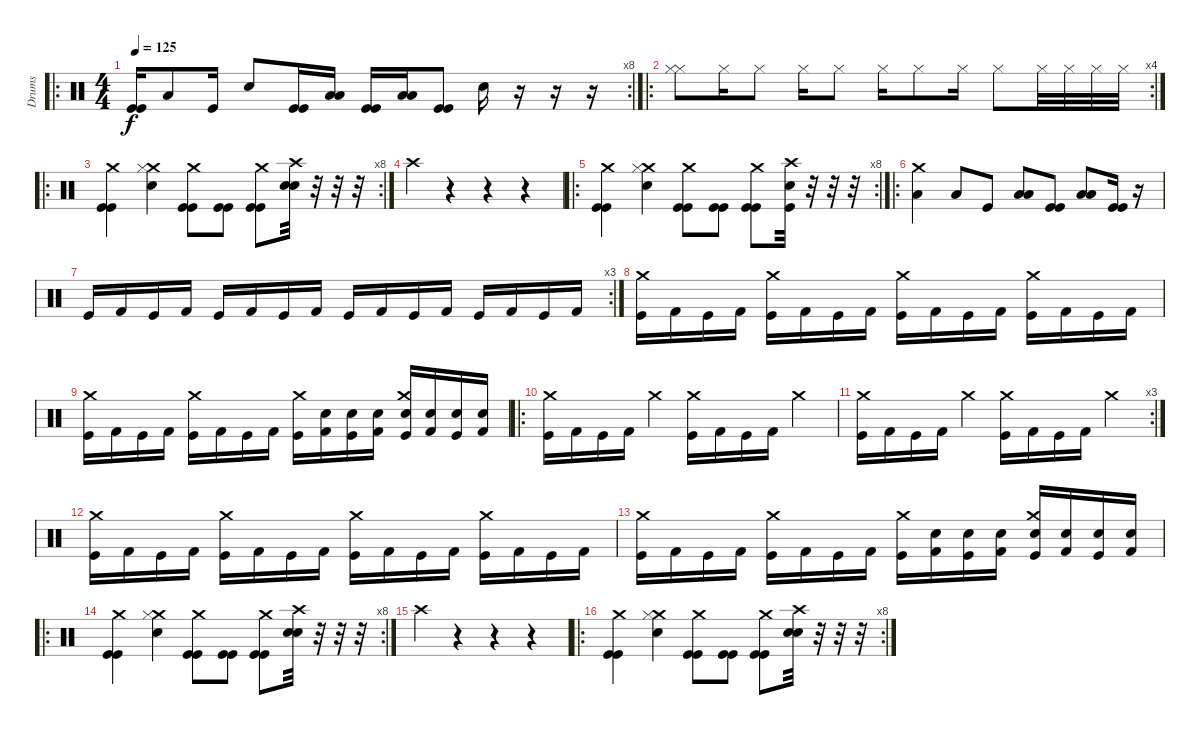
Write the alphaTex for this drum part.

\track ("Drums" "Drums") {instrument percussion}
\staff {score}
\articulation defaults
\ro
\rc 8
\ts (4 4)
\tempo 125
\clef neutral
\ks c
("Kick (hit)" "Kick (hit)").16{dy f} "Low Tom (hit)".8 "Kick (hit)".16 "Snare (hit) 2".8 ("Kick (hit)" "Kick (hit)").16 ("Low Tom (hit)" "Low Tom (hit)").16 ("Kick (hit)" "Kick (hit)").16 ("Low Tom (hit)" "Low Tom (hit)").16 ("Kick (hit)" "Kick (hit)").8 "Snare (hit) 2".16 r.16 r.16 r.16 |
\ro
\rc 4
("Hi-Hat (closed)" "Hi-Hat (closed)").8 "Hi-Hat (closed)".16 "Hi-Hat (closed)".8 "Hi-Hat (closed)".16 "Hi-Hat (closed)".8 "Hi-Hat (closed)".16 "Hi-Hat (closed)".8 "Hi-Hat (closed)".16 "Hi-Hat (closed)".8 "Hi-Hat (closed)".32 "Hi-Hat (closed)".32 "Hi-Hat (closed)".32 "Hi-Hat (closed)".32 |
\ro
\rc 8
("Crash medium (hit)" "Kick (hit)" "Kick (hit)").4 ("Crash medium (hit)" "Hi-Hat (closed)" "Snare (hit) 2").4 ("Crash medium (hit)" "Kick (hit)" "Kick (hit)").8 ("Kick (hit)" "Kick (hit)").8 ("Crash medium (hit)" "Kick (hit)" "Kick (hit)").8 ("Crash high (hit)" "Snare (hit) 2" "Snare (hit) 2").32 r.32 r.32 r.32 |
"Crash high (hit)".4 r.4 r.4 r.4 |
\ro
\rc 8
("Crash medium (hit)" "Kick (hit)" "Kick (hit)").4 ("Crash medium (hit)" "Hi-Hat (closed)" "Snare (hit) 2").4 ("Crash medium (hit)" "Kick (hit)" "Kick (hit)").8 ("Kick (hit)" "Kick (hit)").8 ("Crash medium (hit)" "Kick (hit)" "Kick (hit)").8 ("Crash high (hit)" "Kick (hit)" "Snare (hit) 2").32 r.32 r.32 r.32 |
\ro
("Crash medium (hit)" "Low Tom (hit)").4 "Low Tom (hit)".8 "Kick (hit)".8 ("Low Tom (hit)" "Low Tom (hit)").8 ("Kick (hit)" "Kick (hit)").8 ("Low Tom (hit)" "Low Tom (hit)").8 ("Kick (hit)" "Kick (hit)").16 r.16 |
\rc 3 "Kick (hit)".16 "Kick (hit) 2".16 "Kick (hit)".16 "Kick (hit) 2".16 "Kick (hit)".16 "Kick (hit) 2".16 "Kick (hit)".16 "Kick (hit) 2".16 "Kick (hit)".16 "Kick (hit) 2".16 "Kick (hit)".16 "Kick (hit) 2".16 "Kick (hit)".16 "Kick (hit) 2".16 "Kick (hit)".16 "Kick (hit) 2".16
|
("Crash medium (hit)" "Kick (hit)").16 "Kick (hit) 2".16 "Kick (hit)".16 "Kick (hit) 2".16 ("Crash medium (hit)" "Kick (hit)").16 "Kick (hit) 2".16 "Kick (hit)".16 "Kick (hit) 2".16 ("Crash medium (hit)" "Kick (hit)").16 "Kick (hit) 2".16 "Kick (hit)".16 "Kick (hit) 2".16 ("Crash medium (hit)" "Kick (hit)").16 "Kick (hit) 2".16 "Kick (hit)".16 "Kick (hit) 2".16 |
("Crash medium (hit)" "Kick (hit)").16 "Kick (hit) 2".16 "Kick (hit)".16 "Kick (hit) 2".16 ("Crash medium (hit)" "Kick (hit)").16 "Kick (hit) 2".16 "Kick (hit)".16 "Kick (hit) 2".16 ("Crash medium (hit)" "Kick (hit)").16 ("Electric Snare (hit)" "Kick (hit) 2").16 ("Electric Snare (hit)" "Kick (hit)").16 ("Electric Snare (hit)" "Kick (hit) 2").16 ("Electric Snare (hit)" "Crash medium (hit)" "Kick (hit)").16 ("Electric Snare (hit)" "Kick (hit) 2").16 ("Electric Snare (hit)" "Kick (hit)").16 ("Electric Snare (hit)" "Kick (hit) 2").16 |
\ro
("Crash medium (hit)" "Kick (hit)").16 "Kick (hit) 2".16 "Kick (hit)".16 "Kick (hit) 2".16 "Crash medium (hit)".4 ("Crash medium (hit)" "Kick (hit)").16 "Kick (hit) 2".16 "Kick (hit)".16 "Kick (hit) 2".16 "Crash medium (hit)".4 |
\rc 3
("Crash medium (hit)" "Kick (hit)").16 "Kick (hit) 2".16 "Kick (hit)".16 "Kick (hit) 2".16 "Crash medium (hit)".4 ("Crash medium (hit)" "Kick (hit)").16 "Kick (hit) 2".16 "Kick (hit)".16 "Kick (hit) 2".16 "Crash medium (hit)".4 |
("Crash medium (hit)" "Kick (hit)").16 "Kick (hit) 2".16 "Kick (hit)".16 "Kick (hit) 2".16 ("Crash medium (hit)" "Kick (hit)").16 "Kick (hit) 2".16 "Kick (hit)".16 "Kick (hit) 2".16 ("Crash medium (hit)" "Kick (hit)").16 "Kick (hit) 2".16 "Kick (hit)".16 "Kick (hit) 2".16 ("Crash medium (hit)" "Kick (hit)").16 "Kick (hit) 2".16 "Kick (hit)".16 "Kick (hit) 2".16 |
("Crash medium (hit)" "Kick (hit)").16 "Kick (hit) 2".16 "Kick (hit)".16 "Kick (hit) 2".16 ("Crash medium (hit)" "Kick (hit)").16 "Kick (hit) 2".16 "Kick (hit)".16 "Kick (hit) 2".16 ("Crash medium (hit)" "Kick (hit)").16 ("Electric Snare (hit)" "Kick (hit) 2").16 ("Electric Snare (hit)" "Kick (hit)").16 ("Electric Snare (hit)" "Kick (hit) 2").16 ("Electric Snare (hit)" "Crash medium (hit)" "Kick (hit)").16 ("Electric Snare (hit)" "Kick (hit) 2").16 ("Electric Snare (hit)" "Kick (hit)").16 ("Electric Snare (hit)" "Kick (hit) 2").16 |
\ro
\rc 8
("Crash medium (hit)" "Kick (hit)" "Kick (hit)").4 ("Crash medium (hit)" "Hi-Hat (closed)" "Snare (hit) 2").4 ("Crash medium (hit)" "Kick (hit)" "Kick (hit)").8 ("Kick (hit)" "Kick (hit)").8 ("Crash medium (hit)" "Kick (hit)" "Kick (hit)").8 ("Crash high (hit)" "Snare (hit) 2" "Snare (hit) 2").32 r.32 r.32 r.32 |
"Crash high (hit)".4 r.4 r.4 r.4 |
\ro
\rc 8
("Crash medium (hit)" "Kick (hit)" "Kick (hit)").4 ("Crash medium (hit)" "Hi-Hat (closed)" "Snare (hit) 2").4 ("Crash medium (hit)" "Kick (hit)" "Kick (hit)").8 ("Kick (hit)" "Kick (hit)").8 ("Crash medium (hit)" "Kick (hit)" "Kick (hit)").8 ("Crash high (hit)" "Snare (hit) 2" "Snare (hit) 2").32 r.32 r.32 r.32
